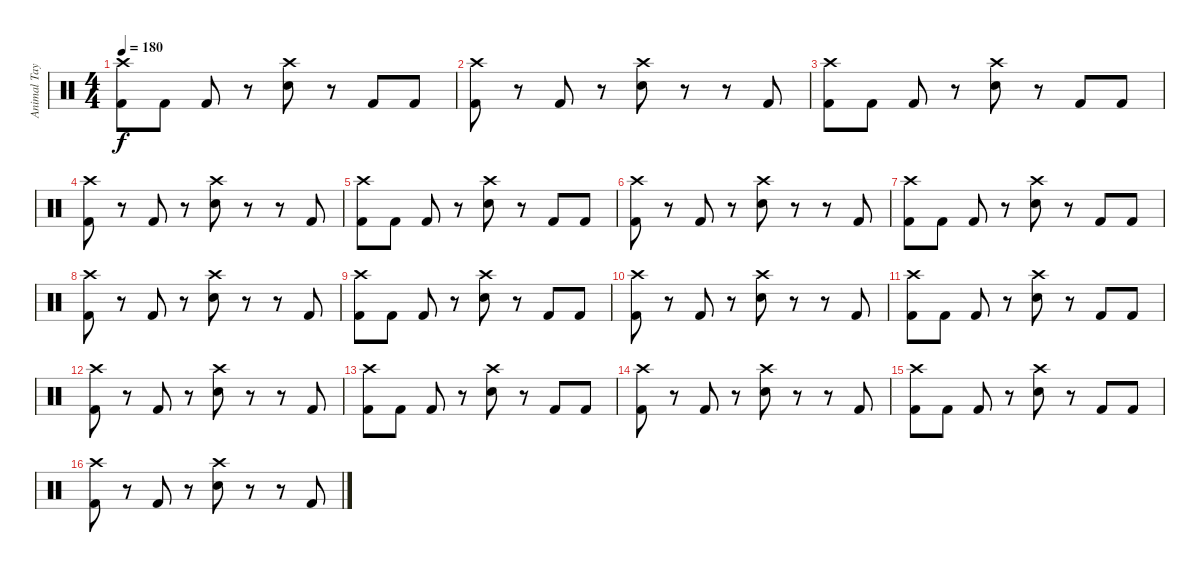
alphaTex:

\track ("Animal Taylor" "Animal Tay") {instrument percussion}
\staff {score}
\articulation defaults
\ts (4 4)
\tempo 180
\clef neutral
\ks c
("Crash high (hit)" "Kick (hit) 2").8{dy f} "Kick (hit) 2".8 "Kick (hit) 2".8 r.8 ("Crash high (hit)" "Snare (hit) 2").8 r.8 "Kick (hit) 2".8 "Kick (hit) 2".8 |
("Crash high (hit)" "Kick (hit) 2").8 r.8 "Kick (hit) 2".8 r.8 ("Crash high (hit)" "Snare (hit) 2").8 r.8 r.8 "Kick (hit) 2".8 |
("Crash high (hit)" "Kick (hit) 2").8 "Kick (hit) 2".8 "Kick (hit) 2".8 r.8 ("Crash high (hit)" "Snare (hit) 2").8 r.8 "Kick (hit) 2".8 "Kick (hit) 2".8 |
("Crash high (hit)" "Kick (hit) 2").8 r.8 "Kick (hit) 2".8 r.8 ("Crash high (hit)" "Snare (hit) 2").8 r.8 r.8 "Kick (hit) 2".8 |
("Crash high (hit)" "Kick (hit) 2").8 "Kick (hit) 2".8 "Kick (hit) 2".8 r.8 ("Crash high (hit)" "Snare (hit) 2").8 r.8 "Kick (hit) 2".8 "Kick (hit) 2".8 |
("Crash high (hit)" "Kick (hit) 2").8 r.8 "Kick (hit) 2".8 r.8 ("Crash high (hit)" "Snare (hit) 2").8 r.8 r.8 "Kick (hit) 2".8 |
("Crash high (hit)" "Kick (hit) 2").8 "Kick (hit) 2".8 "Kick (hit) 2".8 r.8 ("Crash high (hit)" "Snare (hit) 2").8 r.8 "Kick (hit) 2".8 "Kick (hit) 2".8 |
("Crash high (hit)" "Kick (hit) 2").8 r.8 "Kick (hit) 2".8 r.8 ("Crash high (hit)" "Snare (hit) 2").8 r.8 r.8 "Kick (hit) 2".8 |
("Crash high (hit)" "Kick (hit) 2").8 "Kick (hit) 2".8 "Kick (hit) 2".8 r.8 ("Crash high (hit)" "Snare (hit) 2").8 r.8 "Kick (hit) 2".8 "Kick (hit) 2".8 |
("Crash high (hit)" "Kick (hit) 2").8 r.8 "Kick (hit) 2".8 r.8 ("Crash high (hit)" "Snare (hit) 2").8 r.8 r.8 "Kick (hit) 2".8 |
("Crash high (hit)" "Kick (hit) 2").8 "Kick (hit) 2".8 "Kick (hit) 2".8 r.8 ("Crash high (hit)" "Snare (hit) 2").8 r.8 "Kick (hit) 2".8 "Kick (hit) 2".8 |
("Crash high (hit)" "Kick (hit) 2").8 r.8 "Kick (hit) 2".8 r.8 ("Crash high (hit)" "Snare (hit) 2").8 r.8 r.8 "Kick (hit) 2".8 |
("Crash high (hit)" "Kick (hit) 2").8 "Kick (hit) 2".8 "Kick (hit) 2".8 r.8 ("Crash high (hit)" "Snare (hit) 2").8 r.8 "Kick (hit) 2".8 "Kick (hit) 2".8 |
("Crash high (hit)" "Kick (hit) 2").8 r.8 "Kick (hit) 2".8 r.8 ("Crash high (hit)" "Snare (hit) 2").8 r.8 r.8 "Kick (hit) 2".8 |
("Crash high (hit)" "Kick (hit) 2").8 "Kick (hit) 2".8 "Kick (hit) 2".8 r.8 ("Crash high (hit)" "Snare (hit) 2").8 r.8 "Kick (hit) 2".8 "Kick (hit) 2".8 |
("Crash high (hit)" "Kick (hit) 2").8 r.8 "Kick (hit) 2".8 r.8 ("Crash high (hit)" "Snare (hit) 2").8 r.8 r.8 "Kick (hit) 2".8
